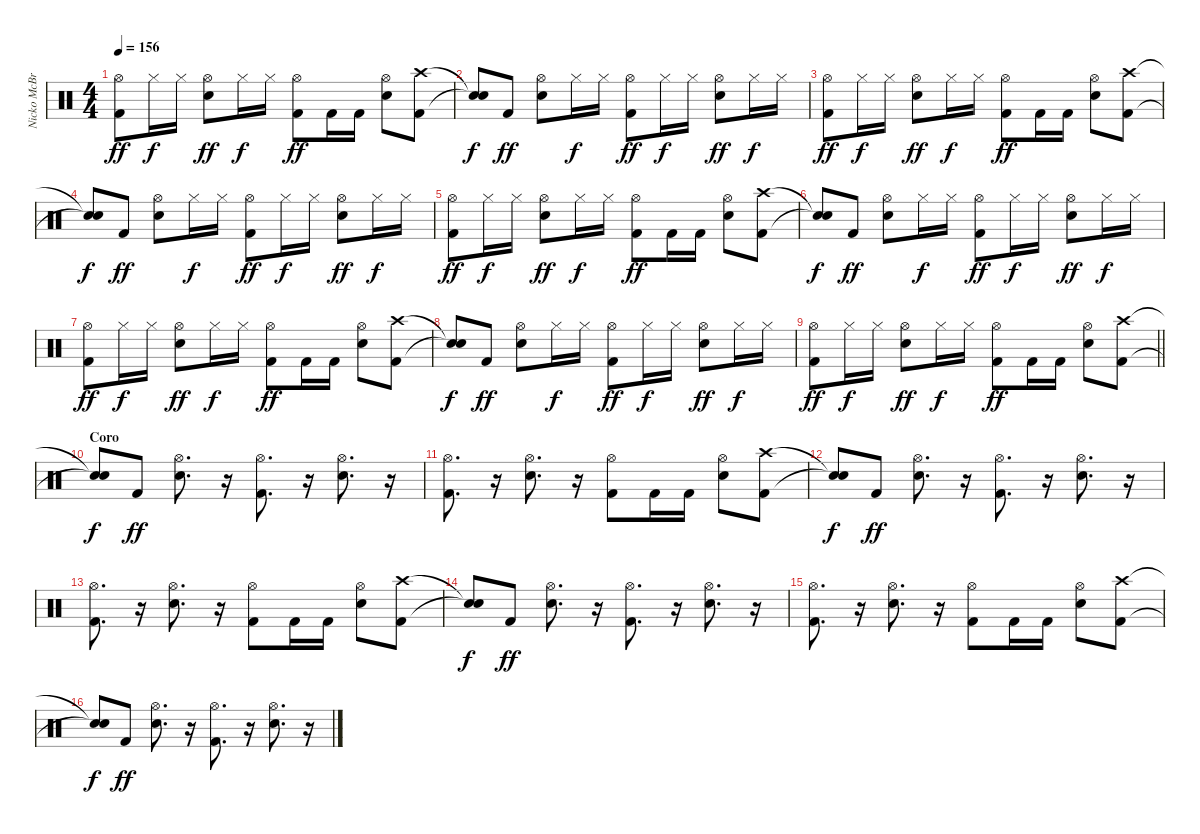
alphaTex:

\track ("Nicko McBrain" "Nicko McBr") {instrument percussion}
\staff {score}
\articulation defaults
\ts (4 4)
\tempo 156
\clef neutral
\ks c
("Kick (hit) 2" "Hi-Hat (open)").8{dy ff} "Hi-Hat (closed)".16{dy f} "Hi-Hat (closed)".16 ("Snare (hit) 2" "Hi-Hat (open)").8{dy ff} "Hi-Hat (closed)".16{dy f} "Hi-Hat (closed)".16 ("Kick (hit) 2" "Hi-Hat (open)").8{dy ff} "Kick (hit) 2".16 "Kick (hit) 2".16 ("Snare (hit) 2" "Hi-Hat (open)").8 ("Kick (hit) 2" "Crash high (hit)").8 |
("Snare (hit)"{t} "Snare (hit)"{t}).8{dy f} "Kick (hit) 2".8{dy ff} ("Snare (hit) 2" "Hi-Hat (open)").8 "Hi-Hat (closed)".16{dy f} "Hi-Hat (closed)".16 ("Kick (hit) 2" "Hi-Hat (open)").8{dy ff} "Hi-Hat (closed)".16{dy f} "Hi-Hat (closed)".16 ("Snare (hit) 2" "Hi-Hat (open)").8{dy ff} "Hi-Hat (closed)".16{dy f} "Hi-Hat (closed)".16 |
("Kick (hit) 2" "Hi-Hat (open)").8{dy ff} "Hi-Hat (closed)".16{dy f} "Hi-Hat (closed)".16 ("Snare (hit) 2" "Hi-Hat (open)").8{dy ff} "Hi-Hat (closed)".16{dy f} "Hi-Hat (closed)".16 ("Kick (hit) 2" "Hi-Hat (open)").8{dy ff} "Kick (hit) 2".16 "Kick (hit) 2".16 ("Snare (hit) 2" "Hi-Hat (open)").8 ("Kick (hit) 2" "Crash high (hit)").8 |
("Snare (hit)"{t} "Snare (hit)"{t}).8{dy f} "Kick (hit) 2".8{dy ff} ("Snare (hit) 2" "Hi-Hat (open)").8 "Hi-Hat (closed)".16{dy f} "Hi-Hat (closed)".16 ("Kick (hit) 2" "Hi-Hat (open)").8{dy ff} "Hi-Hat (closed)".16{dy f} "Hi-Hat (closed)".16 ("Snare (hit) 2" "Hi-Hat (open)").8{dy ff} "Hi-Hat (closed)".16{dy f} "Hi-Hat (closed)".16 |
("Kick (hit) 2" "Hi-Hat (open)").8{dy ff} "Hi-Hat (closed)".16{dy f} "Hi-Hat (closed)".16 ("Snare (hit) 2" "Hi-Hat (open)").8{dy ff} "Hi-Hat (closed)".16{dy f} "Hi-Hat (closed)".16 ("Kick (hit) 2" "Hi-Hat (open)").8{dy ff} "Kick (hit) 2".16 "Kick (hit) 2".16 ("Snare (hit) 2" "Hi-Hat (open)").8 ("Kick (hit) 2" "Crash high (hit)").8 |
("Snare (hit)"{t} "Snare (hit)"{t}).8{dy f} "Kick (hit) 2".8{dy ff} ("Snare (hit) 2" "Hi-Hat (open)").8 "Hi-Hat (closed)".16{dy f} "Hi-Hat (closed)".16 ("Kick (hit) 2" "Hi-Hat (open)").8{dy ff} "Hi-Hat (closed)".16{dy f} "Hi-Hat (closed)".16 ("Snare (hit) 2" "Hi-Hat (open)").8{dy ff} "Hi-Hat (closed)".16{dy f} "Hi-Hat (closed)".16 |
("Kick (hit) 2" "Hi-Hat (open)").8{dy ff} "Hi-Hat (closed)".16{dy f} "Hi-Hat (closed)".16 ("Snare (hit) 2" "Hi-Hat (open)").8{dy ff} "Hi-Hat (closed)".16{dy f} "Hi-Hat (closed)".16 ("Kick (hit) 2" "Hi-Hat (open)").8{dy ff} "Kick (hit) 2".16 "Kick (hit) 2".16 ("Snare (hit) 2" "Hi-Hat (open)").8 ("Kick (hit) 2" "Crash high (hit)").8 |
("Snare (hit)"{t} "Snare (hit)"{t}).8{dy f} "Kick (hit) 2".8{dy ff} ("Snare (hit) 2" "Hi-Hat (open)").8 "Hi-Hat (closed)".16{dy f} "Hi-Hat (closed)".16 ("Kick (hit) 2" "Hi-Hat (open)").8{dy ff} "Hi-Hat (closed)".16{dy f} "Hi-Hat (closed)".16 ("Snare (hit) 2" "Hi-Hat (open)").8{dy ff} "Hi-Hat (closed)".16{dy f} "Hi-Hat (closed)".16 |
\barLineRight lightlight
("Kick (hit) 2" "Hi-Hat (open)").8{dy ff} "Hi-Hat (closed)".16{dy f} "Hi-Hat (closed)".16 ("Snare (hit) 2" "Hi-Hat (open)").8{dy ff} "Hi-Hat (closed)".16{dy f} "Hi-Hat (closed)".16 ("Kick (hit) 2" "Hi-Hat (open)").8{dy ff} "Kick (hit) 2".16 "Kick (hit) 2".16 ("Snare (hit) 2" "Hi-Hat (open)").8 ("Kick (hit) 2" "Crash high (hit)").8 |
\section ("" "Coro")
("Snare (hit)"{t} "Snare (hit)"{t}).8{dy f} "Kick (hit) 2".8{dy ff} ("Snare (hit) 2" "Hi-Hat (open)").8{d} r.16 ("Kick (hit) 2" "Hi-Hat (open)").8{d} r.16 ("Snare (hit) 2" "Hi-Hat (open)").8{d} r.16 |
("Kick (hit) 2" "Hi-Hat (open)").8{d} r.16 ("Snare (hit) 2" "Hi-Hat (open)").8{d} r.16 ("Kick (hit) 2" "Hi-Hat (open)").8 "Kick (hit) 2".16 "Kick (hit) 2".16 ("Snare (hit) 2" "Hi-Hat (open)").8 ("Kick (hit) 2" "Crash high (hit)").8 |
("Snare (hit)"{t} "Snare (hit)"{t}).8{dy f} "Kick (hit) 2".8{dy ff} ("Snare (hit) 2" "Hi-Hat (open)").8{d} r.16 ("Kick (hit) 2" "Hi-Hat (open)").8{d} r.16 ("Snare (hit) 2" "Hi-Hat (open)").8{d} r.16 |
("Kick (hit) 2" "Hi-Hat (open)").8{d} r.16 ("Snare (hit) 2" "Hi-Hat (open)").8{d} r.16 ("Kick (hit) 2" "Hi-Hat (open)").8 "Kick (hit) 2".16 "Kick (hit) 2".16 ("Snare (hit) 2" "Hi-Hat (open)").8 ("Kick (hit) 2" "Crash high (hit)").8 |
("Snare (hit)"{t} "Snare (hit)"{t}).8{dy f} "Kick (hit) 2".8{dy ff} ("Snare (hit) 2" "Hi-Hat (open)").8{d} r.16 ("Kick (hit) 2" "Hi-Hat (open)").8{d} r.16 ("Snare (hit) 2" "Hi-Hat (open)").8{d} r.16 |
("Kick (hit) 2" "Hi-Hat (open)").8{d} r.16 ("Snare (hit) 2" "Hi-Hat (open)").8{d} r.16 ("Kick (hit) 2" "Hi-Hat (open)").8 "Kick (hit) 2".16 "Kick (hit) 2".16 ("Snare (hit) 2" "Hi-Hat (open)").8 ("Kick (hit) 2" "Crash high (hit)").8 |
("Snare (hit)"{t} "Snare (hit)"{t}).8{dy f} "Kick (hit) 2".8{dy ff} ("Snare (hit) 2" "Hi-Hat (open)").8{d} r.16 ("Kick (hit) 2" "Hi-Hat (open)").8{d} r.16 ("Snare (hit) 2" "Hi-Hat (open)").8{d} r.16
